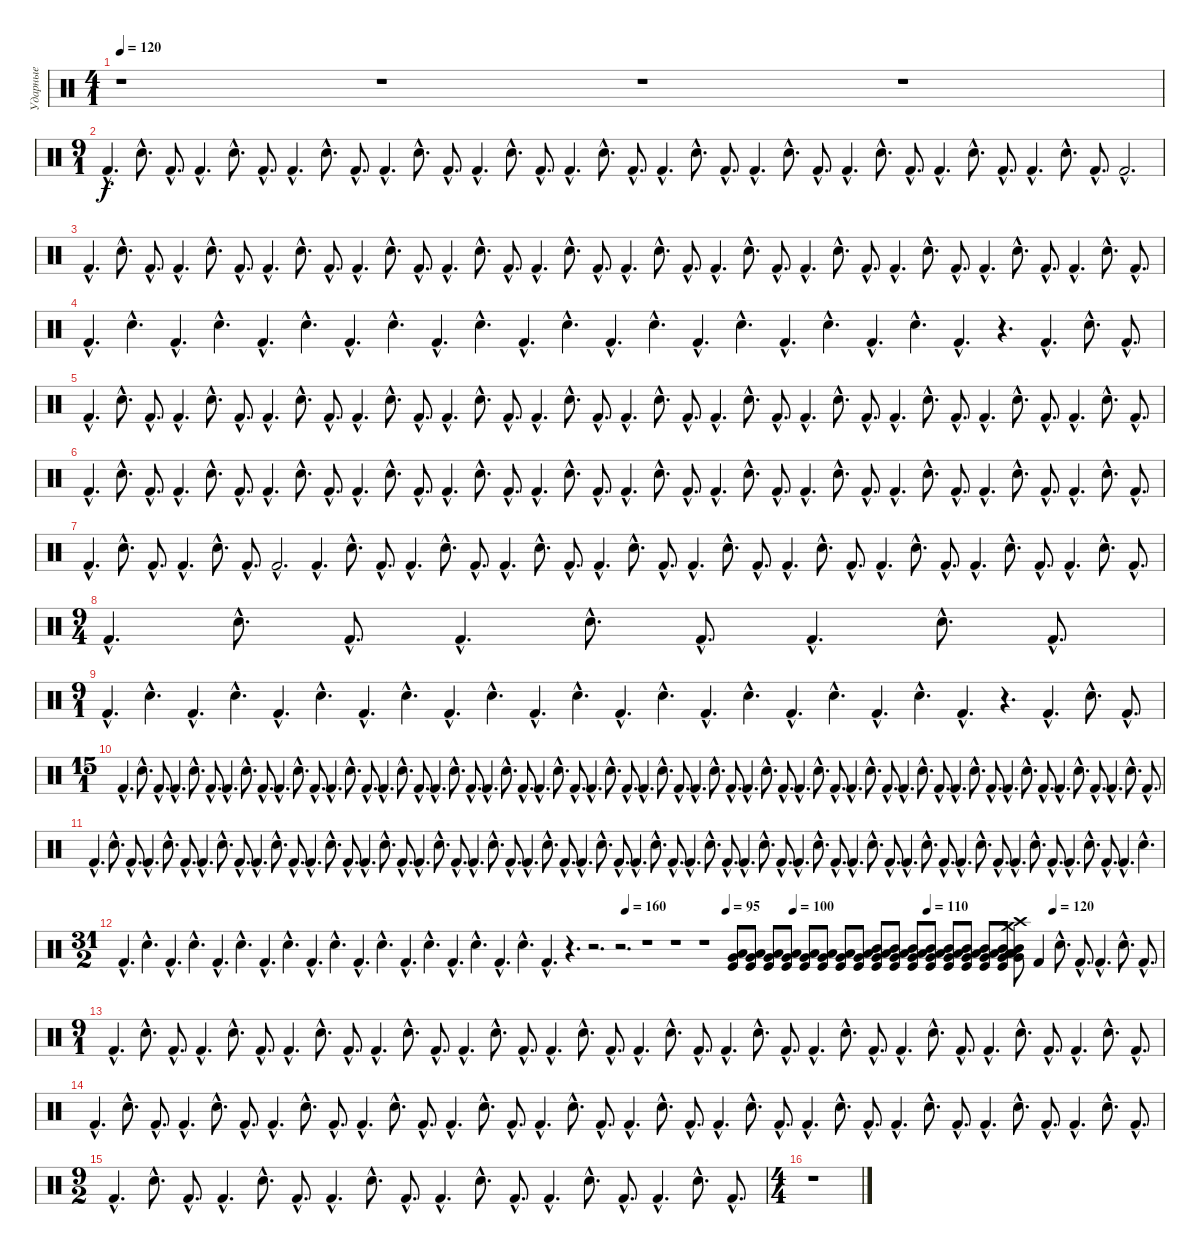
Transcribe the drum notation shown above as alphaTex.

\track ("Ударные" "Ударные") {instrument percussion}
\staff {score}
\articulation defaults
\ts (4 1)
\tempo 120
\clef neutral
\ks c
r.1{dy f} r.1 r.1 r.1 |
\ts (9 1)
"Kick (hit) 2"{hac}.4{d} "Snare (hit) 2"{hac}.8{d} "Kick (hit) 2"{hac}.8{d} "Kick (hit) 2"{hac}.4{d} "Snare (hit) 2"{hac}.8{d} "Kick (hit) 2"{hac}.8{d} "Kick (hit) 2"{hac}.4{d} "Snare (hit) 2"{hac}.8{d} "Kick (hit) 2"{hac}.8{d} "Kick (hit) 2"{hac}.4{d} "Snare (hit) 2"{hac}.8{d} "Kick (hit) 2"{hac}.8{d} "Kick (hit) 2"{hac}.4{d} "Snare (hit) 2"{hac}.8{d} "Kick (hit) 2"{hac}.8{d} "Kick (hit) 2"{hac}.4{d} "Snare (hit) 2"{hac}.8{d} "Kick (hit) 2"{hac}.8{d} "Kick (hit) 2"{hac}.4{d} "Snare (hit) 2"{hac}.8{d} "Kick (hit) 2"{hac}.8{d} "Kick (hit) 2"{hac}.4{d} "Snare (hit) 2"{hac}.8{d} "Kick (hit) 2"{hac}.8{d} "Kick (hit) 2"{hac}.4{d} "Snare (hit) 2"{hac}.8{d} "Kick (hit) 2"{hac}.8{d} "Kick (hit) 2"{hac}.4{d} "Snare (hit) 2"{hac}.8{d} "Kick (hit) 2"{hac}.8{d} "Kick (hit) 2"{hac}.4{d} "Snare (hit) 2"{hac}.8{d} "Kick (hit) 2"{hac}.8{d} "Kick (hit) 2"{hac}.2{d} |
"Kick (hit) 2"{hac}.4{d} "Snare (hit) 2"{hac}.8{d} "Kick (hit) 2"{hac}.8{d} "Kick (hit) 2"{hac}.4{d} "Snare (hit) 2"{hac}.8{d} "Kick (hit) 2"{hac}.8{d} "Kick (hit) 2"{hac}.4{d} "Snare (hit) 2"{hac}.8{d} "Kick (hit) 2"{hac}.8{d} "Kick (hit) 2"{hac}.4{d} "Snare (hit) 2"{hac}.8{d} "Kick (hit) 2"{hac}.8{d} "Kick (hit) 2"{hac}.4{d} "Snare (hit) 2"{hac}.8{d} "Kick (hit) 2"{hac}.8{d} "Kick (hit) 2"{hac}.4{d} "Snare (hit) 2"{hac}.8{d} "Kick (hit) 2"{hac}.8{d} "Kick (hit) 2"{hac}.4{d} "Snare (hit) 2"{hac}.8{d} "Kick (hit) 2"{hac}.8{d} "Kick (hit) 2"{hac}.4{d} "Snare (hit) 2"{hac}.8{d} "Kick (hit) 2"{hac}.8{d} "Kick (hit) 2"{hac}.4{d} "Snare (hit) 2"{hac}.8{d} "Kick (hit) 2"{hac}.8{d} "Kick (hit) 2"{hac}.4{d} "Snare (hit) 2"{hac}.8{d} "Kick (hit) 2"{hac}.8{d} "Kick (hit) 2"{hac}.4{d} "Snare (hit) 2"{hac}.8{d} "Kick (hit) 2"{hac}.8{d} "Kick (hit) 2"{hac}.4{d} "Snare (hit) 2"{hac}.8{d} "Kick (hit) 2"{hac}.8{d} |
"Kick (hit) 2"{hac}.4{d} "Snare (hit) 2"{hac}.4{d} "Kick (hit) 2"{hac}.4{d} "Snare (hit) 2"{hac}.4{d} "Kick (hit) 2"{hac}.4{d} "Snare (hit) 2"{hac}.4{d} "Kick (hit) 2"{hac}.4{d} "Snare (hit) 2"{hac}.4{d} "Kick (hit) 2"{hac}.4{d} "Snare (hit) 2"{hac}.4{d} "Kick (hit) 2"{hac}.4{d} "Snare (hit) 2"{hac}.4{d} "Kick (hit) 2"{hac}.4{d} "Snare (hit) 2"{hac}.4{d} "Kick (hit) 2"{hac}.4{d} "Snare (hit) 2"{hac}.4{d} "Kick (hit) 2"{hac}.4{d} "Snare (hit) 2"{hac}.4{d} "Kick (hit) 2"{hac}.4{d} "Snare (hit) 2"{hac}.4{d} "Kick (hit) 2"{hac}.4{d} r.4{d} "Kick (hit) 2"{hac}.4{d} "Snare (hit) 2"{hac}.8{d} "Kick (hit) 2"{hac}.8{d} |
"Kick (hit) 2"{hac}.4{d} "Snare (hit) 2"{hac}.8{d} "Kick (hit) 2"{hac}.8{d} "Kick (hit) 2"{hac}.4{d} "Snare (hit) 2"{hac}.8{d} "Kick (hit) 2"{hac}.8{d} "Kick (hit) 2"{hac}.4{d} "Snare (hit) 2"{hac}.8{d} "Kick (hit) 2"{hac}.8{d} "Kick (hit) 2"{hac}.4{d} "Snare (hit) 2"{hac}.8{d} "Kick (hit) 2"{hac}.8{d} "Kick (hit) 2"{hac}.4{d} "Snare (hit) 2"{hac}.8{d} "Kick (hit) 2"{hac}.8{d} "Kick (hit) 2"{hac}.4{d} "Snare (hit) 2"{hac}.8{d} "Kick (hit) 2"{hac}.8{d} "Kick (hit) 2"{hac}.4{d} "Snare (hit) 2"{hac}.8{d} "Kick (hit) 2"{hac}.8{d} "Kick (hit) 2"{hac}.4{d} "Snare (hit) 2"{hac}.8{d} "Kick (hit) 2"{hac}.8{d} "Kick (hit) 2"{hac}.4{d} "Snare (hit) 2"{hac}.8{d} "Kick (hit) 2"{hac}.8{d} "Kick (hit) 2"{hac}.4{d} "Snare (hit) 2"{hac}.8{d} "Kick (hit) 2"{hac}.8{d} "Kick (hit) 2"{hac}.4{d} "Snare (hit) 2"{hac}.8{d} "Kick (hit) 2"{hac}.8{d} "Kick (hit) 2"{hac}.4{d} "Snare (hit) 2"{hac}.8{d} "Kick (hit) 2"{hac}.8{d} |
"Kick (hit) 2"{hac}.4{d} "Snare (hit) 2"{hac}.8{d} "Kick (hit) 2"{hac}.8{d} "Kick (hit) 2"{hac}.4{d} "Snare (hit) 2"{hac}.8{d} "Kick (hit) 2"{hac}.8{d} "Kick (hit) 2"{hac}.4{d} "Snare (hit) 2"{hac}.8{d} "Kick (hit) 2"{hac}.8{d} "Kick (hit) 2"{hac}.4{d} "Snare (hit) 2"{hac}.8{d} "Kick (hit) 2"{hac}.8{d} "Kick (hit) 2"{hac}.4{d} "Snare (hit) 2"{hac}.8{d} "Kick (hit) 2"{hac}.8{d} "Kick (hit) 2"{hac}.4{d} "Snare (hit) 2"{hac}.8{d} "Kick (hit) 2"{hac}.8{d} "Kick (hit) 2"{hac}.4{d} "Snare (hit) 2"{hac}.8{d} "Kick (hit) 2"{hac}.8{d} "Kick (hit) 2"{hac}.4{d} "Snare (hit) 2"{hac}.8{d} "Kick (hit) 2"{hac}.8{d} "Kick (hit) 2"{hac}.4{d} "Snare (hit) 2"{hac}.8{d} "Kick (hit) 2"{hac}.8{d} "Kick (hit) 2"{hac}.4{d} "Snare (hit) 2"{hac}.8{d} "Kick (hit) 2"{hac}.8{d} "Kick (hit) 2"{hac}.4{d} "Snare (hit) 2"{hac}.8{d} "Kick (hit) 2"{hac}.8{d} "Kick (hit) 2"{hac}.4{d} "Snare (hit) 2"{hac}.8{d} "Kick (hit) 2"{hac}.8{d} |
"Kick (hit) 2"{hac}.4{d} "Snare (hit) 2"{hac}.8{d} "Kick (hit) 2"{hac}.8{d} "Kick (hit) 2"{hac}.4{d} "Snare (hit) 2"{hac}.8{d} "Kick (hit) 2"{hac}.8{d} "Kick (hit) 2"{hac}.2{d} "Kick (hit) 2"{hac}.4{d} "Snare (hit) 2"{hac}.8{d} "Kick (hit) 2"{hac}.8{d} "Kick (hit) 2"{hac}.4{d} "Snare (hit) 2"{hac}.8{d} "Kick (hit) 2"{hac}.8{d} "Kick (hit) 2"{hac}.4{d} "Snare (hit) 2"{hac}.8{d} "Kick (hit) 2"{hac}.8{d} "Kick (hit) 2"{hac}.4{d} "Snare (hit) 2"{hac}.8{d} "Kick (hit) 2"{hac}.8{d} "Kick (hit) 2"{hac}.4{d} "Snare (hit) 2"{hac}.8{d} "Kick (hit) 2"{hac}.8{d} "Kick (hit) 2"{hac}.4{d} "Snare (hit) 2"{hac}.8{d} "Kick (hit) 2"{hac}.8{d} "Kick (hit) 2"{hac}.4{d} "Snare (hit) 2"{hac}.8{d} "Kick (hit) 2"{hac}.8{d} "Kick (hit) 2"{hac}.4{d} "Snare (hit) 2"{hac}.8{d} "Kick (hit) 2"{hac}.8{d} "Kick (hit) 2"{hac}.4{d} "Snare (hit) 2"{hac}.8{d} "Kick (hit) 2"{hac}.8{d} |
\ts (9 4)
"Kick (hit) 2"{hac}.4{d} "Snare (hit) 2"{hac}.8{d} "Kick (hit) 2"{hac}.8{d} "Kick (hit) 2"{hac}.4{d} "Snare (hit) 2"{hac}.8{d} "Kick (hit) 2"{hac}.8{d} "Kick (hit) 2"{hac}.4{d} "Snare (hit) 2"{hac}.8{d} "Kick (hit) 2"{hac}.8{d} |
\ts (9 1)
"Kick (hit) 2"{hac}.4{d} "Snare (hit) 2"{hac}.4{d} "Kick (hit) 2"{hac}.4{d} "Snare (hit) 2"{hac}.4{d} "Kick (hit) 2"{hac}.4{d} "Snare (hit) 2"{hac}.4{d} "Kick (hit) 2"{hac}.4{d} "Snare (hit) 2"{hac}.4{d} "Kick (hit) 2"{hac}.4{d} "Snare (hit) 2"{hac}.4{d} "Kick (hit) 2"{hac}.4{d} "Snare (hit) 2"{hac}.4{d} "Kick (hit) 2"{hac}.4{d} "Snare (hit) 2"{hac}.4{d} "Kick (hit) 2"{hac}.4{d} "Snare (hit) 2"{hac}.4{d} "Kick (hit) 2"{hac}.4{d} "Snare (hit) 2"{hac}.4{d} "Kick (hit) 2"{hac}.4{d} "Snare (hit) 2"{hac}.4{d} "Kick (hit) 2"{hac}.4{d} r.4{d} "Kick (hit) 2"{hac}.4{d} "Snare (hit) 2"{hac}.8{d} "Kick (hit) 2"{hac}.8{d} |
\ts (15 1)
"Kick (hit) 2"{hac}.4{d} "Snare (hit) 2"{hac}.8{d} "Kick (hit) 2"{hac}.8{d} "Kick (hit) 2"{hac}.4{d} "Snare (hit) 2"{hac}.8{d} "Kick (hit) 2"{hac}.8{d} "Kick (hit) 2"{hac}.4{d} "Snare (hit) 2"{hac}.8{d} "Kick (hit) 2"{hac}.8{d} "Kick (hit) 2"{hac}.4{d} "Snare (hit) 2"{hac}.8{d} "Kick (hit) 2"{hac}.8{d} "Kick (hit) 2"{hac}.4{d} "Snare (hit) 2"{hac}.8{d} "Kick (hit) 2"{hac}.8{d} "Kick (hit) 2"{hac}.4{d} "Snare (hit) 2"{hac}.8{d} "Kick (hit) 2"{hac}.8{d} "Kick (hit) 2"{hac}.4{d} "Snare (hit) 2"{hac}.8{d} "Kick (hit) 2"{hac}.8{d} "Kick (hit) 2"{hac}.4{d} "Snare (hit) 2"{hac}.8{d} "Kick (hit) 2"{hac}.8{d} "Kick (hit) 2"{hac}.4{d} "Snare (hit) 2"{hac}.8{d} "Kick (hit) 2"{hac}.8{d} "Kick (hit) 2"{hac}.4{d} "Snare (hit) 2"{hac}.8{d} "Kick (hit) 2"{hac}.8{d} "Kick (hit) 2"{hac}.4{d} "Snare (hit) 2"{hac}.8{d} "Kick (hit) 2"{hac}.8{d} "Kick (hit) 2"{hac}.4{d} "Snare (hit) 2"{hac}.8{d} "Kick (hit) 2"{hac}.8{d} "Kick (hit) 2"{hac}.4{d} "Snare (hit) 2"{hac}.8{d} "Kick (hit) 2"{hac}.8{d} "Kick (hit) 2"{hac}.4{d} "Snare (hit) 2"{hac}.8{d} "Kick (hit) 2"{hac}.8{d} "Kick (hit) 2"{hac}.4{d} "Snare (hit) 2"{hac}.8{d} "Kick (hit) 2"{hac}.8{d} "Kick (hit) 2"{hac}.4{d} "Snare (hit) 2"{hac}.8{d} "Kick (hit) 2"{hac}.8{d} "Kick (hit) 2"{hac}.4{d} "Snare (hit) 2"{hac}.8{d} "Kick (hit) 2"{hac}.8{d} "Kick (hit) 2"{hac}.4{d} "Snare (hit) 2"{hac}.8{d} "Kick (hit) 2"{hac}.8{d} "Kick (hit) 2"{hac}.4{d} "Snare (hit) 2"{hac}.8{d} "Kick (hit) 2"{hac}.8{d} "Kick (hit) 2"{hac}.4{d} "Snare (hit) 2"{hac}.8{d} "Kick (hit) 2"{hac}.8{d} |
"Kick (hit) 2"{hac}.4{d} "Snare (hit) 2"{hac}.8{d} "Kick (hit) 2"{hac}.8{d} "Kick (hit) 2"{hac}.4{d} "Snare (hit) 2"{hac}.8{d} "Kick (hit) 2"{hac}.8{d} "Kick (hit) 2"{hac}.4{d} "Snare (hit) 2"{hac}.8{d} "Kick (hit) 2"{hac}.8{d} "Kick (hit) 2"{hac}.4{d} "Snare (hit) 2"{hac}.8{d} "Kick (hit) 2"{hac}.8{d} "Kick (hit) 2"{hac}.4{d} "Snare (hit) 2"{hac}.8{d} "Kick (hit) 2"{hac}.8{d} "Kick (hit) 2"{hac}.4{d} "Snare (hit) 2"{hac}.8{d} "Kick (hit) 2"{hac}.8{d} "Kick (hit) 2"{hac}.4{d} "Snare (hit) 2"{hac}.8{d} "Kick (hit) 2"{hac}.8{d} "Kick (hit) 2"{hac}.4{d} "Snare (hit) 2"{hac}.8{d} "Kick (hit) 2"{hac}.8{d} "Kick (hit) 2"{hac}.4{d} "Snare (hit) 2"{hac}.8{d} "Kick (hit) 2"{hac}.8{d} "Kick (hit) 2"{hac}.4{d} "Snare (hit) 2"{hac}.8{d} "Kick (hit) 2"{hac}.8{d} "Kick (hit) 2"{hac}.4{d} "Snare (hit) 2"{hac}.8{d} "Kick (hit) 2"{hac}.8{d} "Kick (hit) 2"{hac}.4{d} "Snare (hit) 2"{hac}.8{d} "Kick (hit) 2"{hac}.8{d} "Kick (hit) 2"{hac}.4{d} "Snare (hit) 2"{hac}.8{d} "Kick (hit) 2"{hac}.8{d} "Kick (hit) 2"{hac}.4{d} "Snare (hit) 2"{hac}.8{d} "Kick (hit) 2"{hac}.8{d} "Kick (hit) 2"{hac}.4{d} "Snare (hit) 2"{hac}.8{d} "Kick (hit) 2"{hac}.8{d} "Kick (hit) 2"{hac}.4{d} "Snare (hit) 2"{hac}.8{d} "Kick (hit) 2"{hac}.8{d} "Kick (hit) 2"{hac}.4{d} "Snare (hit) 2"{hac}.8{d} "Kick (hit) 2"{hac}.8{d} "Kick (hit) 2"{hac}.4{d} "Snare (hit) 2"{hac}.8{d} "Kick (hit) 2"{hac}.8{d} "Kick (hit) 2"{hac}.4{d} "Snare (hit) 2"{hac}.8{d} "Kick (hit) 2"{hac}.8{d} "Kick (hit) 2"{hac}.4{d} "Snare (hit) 2"{hac}.4{d} |
\ts (31 2)
\tempo (160 0.4838709677419355)
\tempo (95 0.5806451612903226)
\tempo (100 0.6451612903225806)
\tempo (110 0.7741935483870968)
\tempo (120 0.8951612903225806)
"Kick (hit) 2"{hac}.4{d} "Snare (hit) 2"{hac}.4{d} "Kick (hit) 2"{hac}.4{d} "Snare (hit) 2"{hac}.4{d} "Kick (hit) 2"{hac}.4{d} "Snare (hit) 2"{hac}.4{d} "Kick (hit) 2"{hac}.4{d} "Snare (hit) 2"{hac}.4{d} "Kick (hit) 2"{hac}.4{d} "Snare (hit) 2"{hac}.4{d} "Kick (hit) 2"{hac}.4{d} "Snare (hit) 2"{hac}.4{d} "Kick (hit) 2"{hac}.4{d} "Snare (hit) 2"{hac}.4{d} "Kick (hit) 2"{hac}.4{d} "Snare (hit) 2"{hac}.4{d} "Kick (hit) 2"{hac}.4{d} "Snare (hit) 2"{hac}.4{d} "Kick (hit) 2"{hac}.4{d} r.4{d} r.2{d} r.2{d} r.1 r.1 r.1 ("Low Floor Tom (hit)" "Very Low Tom (hit)" "Kick (hit)").8 ("Low Floor Tom (hit)" "Very Low Tom (hit)" "Kick (hit)").8 ("Low Floor Tom (hit)" "Very Low Tom (hit)" "Kick (hit)").8 ("Low Floor Tom (hit)" "Very Low Tom (hit)" "Kick (hit)").8 ("Low Floor Tom (hit)" "Very Low Tom (hit)" "Kick (hit)").8 ("Low Floor Tom (hit)" "Very Low Tom (hit)" "Kick (hit)").8 ("Low Floor Tom (hit)" "Very Low Tom (hit)" "Kick (hit)").8 ("Low Floor Tom (hit)" "Very Low Tom (hit)" "Kick (hit)").8 ("Low Floor Tom (hit)" "Very Low Tom (hit)" "Kick (hit)" "Mid Tom (hit)").8 ("Low Floor Tom (hit)" "Very Low Tom (hit)" "Kick (hit)" "Mid Tom (hit)").8 ("Low Floor Tom (hit)" "Very Low Tom (hit)" "Kick (hit)" "Mid Tom (hit)").8 ("Low Floor Tom (hit)" "Very Low Tom (hit)" "Kick (hit)" "Mid Tom (hit)").8 ("Low Floor Tom (hit)" "Very Low Tom (hit)" "Kick (hit)" "Mid Tom (hit)").8 ("Low Floor Tom (hit)" "Very Low Tom (hit)" "Kick (hit)" "Mid Tom (hit)").8 ("Low Floor Tom (hit)" "Very Low Tom (hit)" "Kick (hit)" "Mid Tom (hit)").8 ("Low Floor Tom (hit)" "Very Low Tom (hit)" "Kick (hit)" "Mid Tom (hit)").8 ("Low Floor Tom (hit)" "Very Low Tom (hit)" "Crash high (hit)" "Mid Tom (hit)" "Crash medium (hit)").8 "Kick (hit) 2".4 "Snare (hit) 2"{hac}.8{d} "Kick (hit) 2"{hac}.8{d} "Kick (hit) 2"{hac}.4{d} "Snare (hit) 2"{hac}.8{d} "Kick (hit) 2"{hac}.8{d} |
\ts (9 1)
"Kick (hit) 2"{hac}.4{d} "Snare (hit) 2"{hac}.8{d} "Kick (hit) 2"{hac}.8{d} "Kick (hit) 2"{hac}.4{d} "Snare (hit) 2"{hac}.8{d} "Kick (hit) 2"{hac}.8{d} "Kick (hit) 2"{hac}.4{d} "Snare (hit) 2"{hac}.8{d} "Kick (hit) 2"{hac}.8{d} "Kick (hit) 2"{hac}.4{d} "Snare (hit) 2"{hac}.8{d} "Kick (hit) 2"{hac}.8{d} "Kick (hit) 2"{hac}.4{d} "Snare (hit) 2"{hac}.8{d} "Kick (hit) 2"{hac}.8{d} "Kick (hit) 2"{hac}.4{d} "Snare (hit) 2"{hac}.8{d} "Kick (hit) 2"{hac}.8{d} "Kick (hit) 2"{hac}.4{d} "Snare (hit) 2"{hac}.8{d} "Kick (hit) 2"{hac}.8{d} "Kick (hit) 2"{hac}.4{d} "Snare (hit) 2"{hac}.8{d} "Kick (hit) 2"{hac}.8{d} "Kick (hit) 2"{hac}.4{d} "Snare (hit) 2"{hac}.8{d} "Kick (hit) 2"{hac}.8{d} "Kick (hit) 2"{hac}.4{d} "Snare (hit) 2"{hac}.8{d} "Kick (hit) 2"{hac}.8{d} "Kick (hit) 2"{hac}.4{d} "Snare (hit) 2"{hac}.8{d} "Kick (hit) 2"{hac}.8{d} "Kick (hit) 2"{hac}.4{d} "Snare (hit) 2"{hac}.8{d} "Kick (hit) 2"{hac}.8{d} |
"Kick (hit) 2"{hac}.4{d} "Snare (hit) 2"{hac}.8{d} "Kick (hit) 2"{hac}.8{d} "Kick (hit) 2"{hac}.4{d} "Snare (hit) 2"{hac}.8{d} "Kick (hit) 2"{hac}.8{d} "Kick (hit) 2"{hac}.4{d} "Snare (hit) 2"{hac}.8{d} "Kick (hit) 2"{hac}.8{d} "Kick (hit) 2"{hac}.4{d} "Snare (hit) 2"{hac}.8{d} "Kick (hit) 2"{hac}.8{d} "Kick (hit) 2"{hac}.4{d} "Snare (hit) 2"{hac}.8{d} "Kick (hit) 2"{hac}.8{d} "Kick (hit) 2"{hac}.4{d} "Snare (hit) 2"{hac}.8{d} "Kick (hit) 2"{hac}.8{d} "Kick (hit) 2"{hac}.4{d} "Snare (hit) 2"{hac}.8{d} "Kick (hit) 2"{hac}.8{d} "Kick (hit) 2"{hac}.4{d} "Snare (hit) 2"{hac}.8{d} "Kick (hit) 2"{hac}.8{d} "Kick (hit) 2"{hac}.4{d} "Snare (hit) 2"{hac}.8{d} "Kick (hit) 2"{hac}.8{d} "Kick (hit) 2"{hac}.4{d} "Snare (hit) 2"{hac}.8{d} "Kick (hit) 2"{hac}.8{d} "Kick (hit) 2"{hac}.4{d} "Snare (hit) 2"{hac}.8{d} "Kick (hit) 2"{hac}.8{d} "Kick (hit) 2"{hac}.4{d} "Snare (hit) 2"{hac}.8{d} "Kick (hit) 2"{hac}.8{d} |
\ts (9 2)
"Kick (hit) 2"{hac}.4{d} "Snare (hit) 2"{hac}.8{d} "Kick (hit) 2"{hac}.8{d} "Kick (hit) 2"{hac}.4{d} "Snare (hit) 2"{hac}.8{d} "Kick (hit) 2"{hac}.8{d} "Kick (hit) 2"{hac}.4{d} "Snare (hit) 2"{hac}.8{d} "Kick (hit) 2"{hac}.8{d} "Kick (hit) 2"{hac}.4{d} "Snare (hit) 2"{hac}.8{d} "Kick (hit) 2"{hac}.8{d} "Kick (hit) 2"{hac}.4{d} "Snare (hit) 2"{hac}.8{d} "Kick (hit) 2"{hac}.8{d} "Kick (hit) 2"{hac}.4{d} "Snare (hit) 2"{hac}.8{d} "Kick (hit) 2"{hac}.8{d} |
\ts (4 4)
r.1
